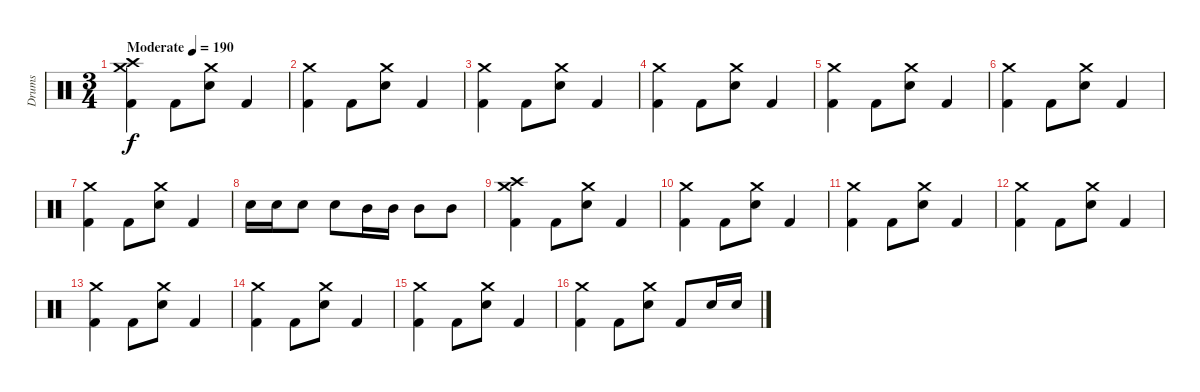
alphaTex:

\track ("Drums" "Drums") {instrument percussion}
\staff {score}
\articulation defaults
\ts (3 4)
\tempo (190 "Moderate")
\clef neutral
\ks c
("Crash medium (hit)" "Crash high (hit)" "Kick (hit) 2").4{dy f} "Kick (hit) 2".8 ("Crash medium (hit)" "Electric Snare (hit)").8 "Kick (hit) 2".4 |
("Crash medium (hit)" "Kick (hit) 2").4 "Kick (hit) 2".8 ("Crash medium (hit)" "Electric Snare (hit)").8 "Kick (hit) 2".4 |
("Crash medium (hit)" "Kick (hit) 2").4 "Kick (hit) 2".8 ("Crash medium (hit)" "Electric Snare (hit)").8 "Kick (hit) 2".4 |
("Crash medium (hit)" "Kick (hit) 2").4 "Kick (hit) 2".8 ("Crash medium (hit)" "Electric Snare (hit)").8 "Kick (hit) 2".4 |
("Crash medium (hit)" "Kick (hit) 2").4 "Kick (hit) 2".8 ("Crash medium (hit)" "Electric Snare (hit)").8 "Kick (hit) 2".4 |
("Crash medium (hit)" "Kick (hit) 2").4 "Kick (hit) 2".8 ("Crash medium (hit)" "Electric Snare (hit)").8 "Kick (hit) 2".4 |
("Crash medium (hit)" "Kick (hit) 2").4 "Kick (hit) 2".8 ("Crash medium (hit)" "Electric Snare (hit)").8 "Kick (hit) 2".4 |
"Electric Snare (hit)".16 "Electric Snare (hit)".16 "Electric Snare (hit)".8 "Electric Snare (hit)".8 "Mid Tom (hit)".16 "Mid Tom (hit)".16 "Mid Tom (hit)".8 "Mid Tom (hit)".8 |
("Crash medium (hit)" "Crash high (hit)" "Kick (hit) 2").4 "Kick (hit) 2".8 ("Crash medium (hit)" "Electric Snare (hit)").8 "Kick (hit) 2".4 |
("Crash medium (hit)" "Kick (hit) 2").4 "Kick (hit) 2".8 ("Crash medium (hit)" "Electric Snare (hit)").8 "Kick (hit) 2".4 |
("Crash medium (hit)" "Kick (hit) 2").4 "Kick (hit) 2".8 ("Crash medium (hit)" "Electric Snare (hit)").8 "Kick (hit) 2".4 |
("Crash medium (hit)" "Kick (hit) 2").4 "Kick (hit) 2".8 ("Crash medium (hit)" "Electric Snare (hit)").8 "Kick (hit) 2".4 |
("Crash medium (hit)" "Kick (hit) 2").4 "Kick (hit) 2".8 ("Crash medium (hit)" "Electric Snare (hit)").8 "Kick (hit) 2".4 |
("Crash medium (hit)" "Kick (hit) 2").4 "Kick (hit) 2".8 ("Crash medium (hit)" "Electric Snare (hit)").8 "Kick (hit) 2".4 |
("Crash medium (hit)" "Kick (hit) 2").4 "Kick (hit) 2".8 ("Crash medium (hit)" "Electric Snare (hit)").8 "Kick (hit) 2".4 |
("Crash medium (hit)" "Kick (hit) 2").4 "Kick (hit) 2".8 ("Crash medium (hit)" "Electric Snare (hit)").8 "Kick (hit) 2".8 "Electric Snare (hit)".16 "Electric Snare (hit)".16
